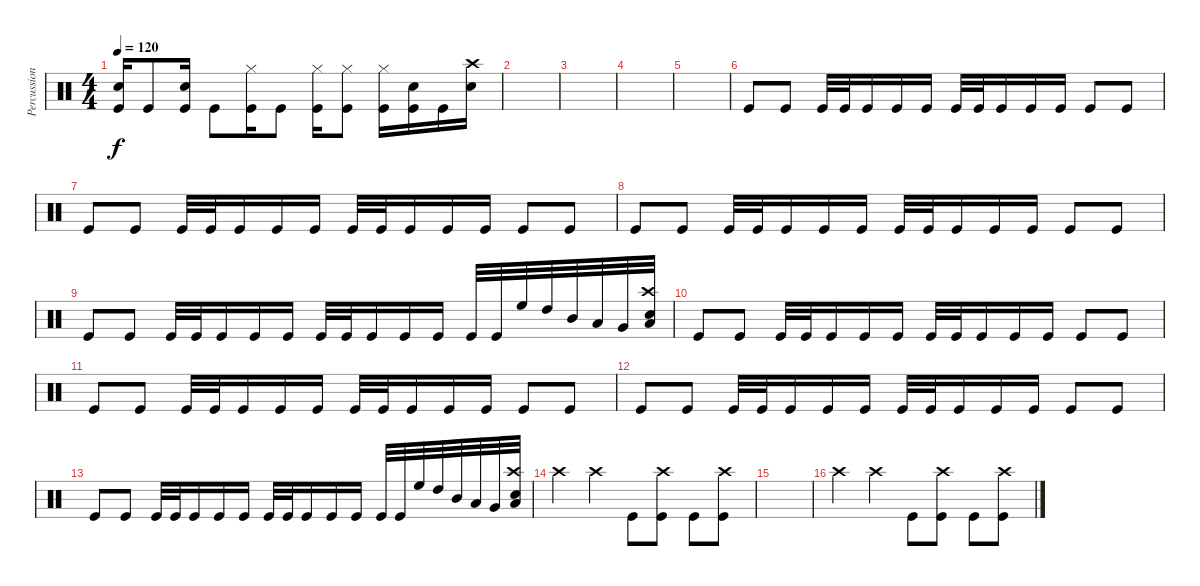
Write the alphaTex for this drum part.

\track ("Percussion" "Percussion") {instrument percussion}
\staff {score}
\articulation defaults
\ts (4 4)
\tempo 120
\clef neutral
\ks c
("Kick (hit)" "Snare (hit) 2").16{dy f} "Kick (hit)".8 ("Kick (hit)" "Snare (hit) 2").16 "Kick (hit)".8 ("Kick (hit)" "Hi-Hat (closed)").16 "Kick (hit)".8 ("Kick (hit)" "Hi-Hat (closed)").16 ("Kick (hit)" "Hi-Hat (closed)").8 ("Kick (hit)" "Hi-Hat (closed)").16 ("Kick (hit)" "Snare (hit) 2").16 "Kick (hit)".16 ("Crash high (hit)" "Snare (hit) 2").16 |
|
|
|
|
"Kick (hit)".8 "Kick (hit)".8 "Kick (hit)".32 "Kick (hit)".32 "Kick (hit)".16 "Kick (hit)".16 "Kick (hit)".16 "Kick (hit)".32 "Kick (hit)".32 "Kick (hit)".16 "Kick (hit)".16 "Kick (hit)".16 "Kick (hit)".8 "Kick (hit)".8 |
"Kick (hit)".8 "Kick (hit)".8 "Kick (hit)".32 "Kick (hit)".32 "Kick (hit)".16 "Kick (hit)".16 "Kick (hit)".16 "Kick (hit)".32 "Kick (hit)".32 "Kick (hit)".16 "Kick (hit)".16 "Kick (hit)".16 "Kick (hit)".8 "Kick (hit)".8 |
"Kick (hit)".8 "Kick (hit)".8 "Kick (hit)".32 "Kick (hit)".32 "Kick (hit)".16 "Kick (hit)".16 "Kick (hit)".16 "Kick (hit)".32 "Kick (hit)".32 "Kick (hit)".16 "Kick (hit)".16 "Kick (hit)".16 "Kick (hit)".8 "Kick (hit)".8 |
"Kick (hit)".8 "Kick (hit)".8 "Kick (hit)".32 "Kick (hit)".32 "Kick (hit)".16 "Kick (hit)".16 "Kick (hit)".16 "Kick (hit)".32 "Kick (hit)".32 "Kick (hit)".16 "Kick (hit)".16 "Kick (hit)".16 "Kick (hit)".32 "Kick (hit)".32 "High Floor Tom (hit)".32 "High Tom (hit)".32 "Mid Tom (hit)".32 "Low Tom (hit)".32 "Very Low Tom (hit)".32 ("Crash high (hit)" "Low Floor Tom (hit)" "Snare (hit) 2").32 |
"Kick (hit)".8 "Kick (hit)".8 "Kick (hit)".32 "Kick (hit)".32 "Kick (hit)".16 "Kick (hit)".16 "Kick (hit)".16 "Kick (hit)".32 "Kick (hit)".32 "Kick (hit)".16 "Kick (hit)".16 "Kick (hit)".16 "Kick (hit)".8 "Kick (hit)".8 |
"Kick (hit)".8 "Kick (hit)".8 "Kick (hit)".32 "Kick (hit)".32 "Kick (hit)".16 "Kick (hit)".16 "Kick (hit)".16 "Kick (hit)".32 "Kick (hit)".32 "Kick (hit)".16 "Kick (hit)".16 "Kick (hit)".16 "Kick (hit)".8 "Kick (hit)".8 |
"Kick (hit)".8 "Kick (hit)".8 "Kick (hit)".32 "Kick (hit)".32 "Kick (hit)".16 "Kick (hit)".16 "Kick (hit)".16 "Kick (hit)".32 "Kick (hit)".32 "Kick (hit)".16 "Kick (hit)".16 "Kick (hit)".16 "Kick (hit)".8 "Kick (hit)".8 |
"Kick (hit)".8 "Kick (hit)".8 "Kick (hit)".32 "Kick (hit)".32 "Kick (hit)".16 "Kick (hit)".16 "Kick (hit)".16 "Kick (hit)".32 "Kick (hit)".32 "Kick (hit)".16 "Kick (hit)".16 "Kick (hit)".16 "Kick (hit)".32 "Kick (hit)".32 "High Floor Tom (hit)".32 "High Tom (hit)".32 "Mid Tom (hit)".32 "Low Tom (hit)".32 "Very Low Tom (hit)".32 ("Crash high (hit)" "Low Floor Tom (hit)" "Snare (hit) 2").32 |
"Crash high (hit)".4 "Crash high (hit)".4 "Kick (hit)".8 ("Kick (hit)" "Crash high (hit)").8 "Kick (hit)".8 ("Kick (hit)" "Crash high (hit)").8 |
|
"Crash high (hit)".4 "Crash high (hit)".4 "Kick (hit)".8 ("Kick (hit)" "Crash high (hit)").8 "Kick (hit)".8 ("Kick (hit)" "Crash high (hit)").8
